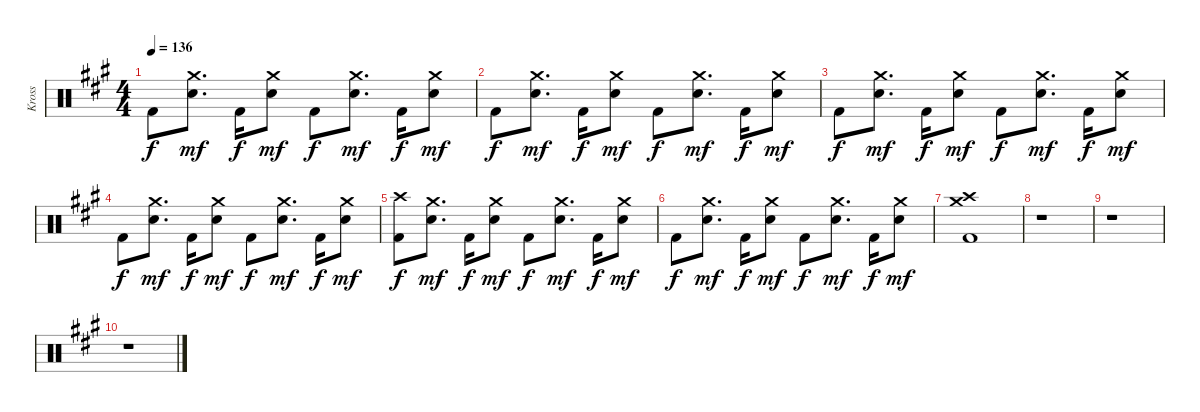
\track ("Kross" "Kross") {instrument percussion}
\staff {score}
\articulation defaults
\ts (4 4)
\tempo 136
\clef neutral
\ks a "Kick (hit) 2".8{dy f}
("Crash medium (hit)" "Snare (hit) 2").8{d dy mf} "Kick (hit) 2".16{dy f} ("Crash medium (hit)" "Snare (hit) 2").8{dy mf} "Kick (hit) 2".8{dy f} ("Crash medium (hit)" "Snare (hit) 2").8{d dy mf} "Kick (hit) 2".16{dy f} ("Crash medium (hit)" "Snare (hit) 2").8{dy mf} |
"Kick (hit) 2".8{dy f} ("Crash medium (hit)" "Snare (hit) 2").8{d dy mf} "Kick (hit) 2".16{dy f} ("Crash medium (hit)" "Snare (hit) 2").8{dy mf} "Kick (hit) 2".8{dy f} ("Crash medium (hit)" "Snare (hit) 2").8{d dy mf} "Kick (hit) 2".16{dy f} ("Crash medium (hit)" "Snare (hit) 2").8{dy mf} |
"Kick (hit) 2".8{dy f} ("Crash medium (hit)" "Snare (hit) 2").8{d dy mf} "Kick (hit) 2".16{dy f} ("Crash medium (hit)" "Snare (hit) 2").8{dy mf} "Kick (hit) 2".8{dy f} ("Crash medium (hit)" "Snare (hit) 2").8{d dy mf} "Kick (hit) 2".16{dy f} ("Crash medium (hit)" "Snare (hit) 2").8{dy mf} |
"Kick (hit) 2".8{dy f} ("Crash medium (hit)" "Snare (hit) 2").8{d dy mf} "Kick (hit) 2".16{dy f} ("Crash medium (hit)" "Snare (hit) 2").8{dy mf} "Kick (hit) 2".8{dy f} ("Crash medium (hit)" "Snare (hit) 2").8{d dy mf} "Kick (hit) 2".16{dy f} ("Crash medium (hit)" "Snare (hit) 2").8{dy mf} |
("Crash high (hit)" "Kick (hit) 2").8{dy f} ("Crash medium (hit)" "Snare (hit) 2").8{d dy mf} "Kick (hit) 2".16{dy f} ("Crash medium (hit)" "Snare (hit) 2").8{dy mf} "Kick (hit) 2".8{dy f} ("Crash medium (hit)" "Snare (hit) 2").8{d dy mf} "Kick (hit) 2".16{dy f} ("Crash medium (hit)" "Snare (hit) 2").8{dy mf} |
"Kick (hit) 2".8{dy f} ("Crash medium (hit)" "Snare (hit) 2").8{d dy mf} "Kick (hit) 2".16{dy f} ("Crash medium (hit)" "Snare (hit) 2").8{dy mf} "Kick (hit) 2".8{dy f} ("Crash medium (hit)" "Snare (hit) 2").8{d dy mf} "Kick (hit) 2".16{dy f} ("Crash medium (hit)" "Snare (hit) 2").8{dy mf} |
("Crash high (hit)" "Crash medium (hit)" "Kick (hit) 2").1 |
r.1 |
r.1 |
r.1
